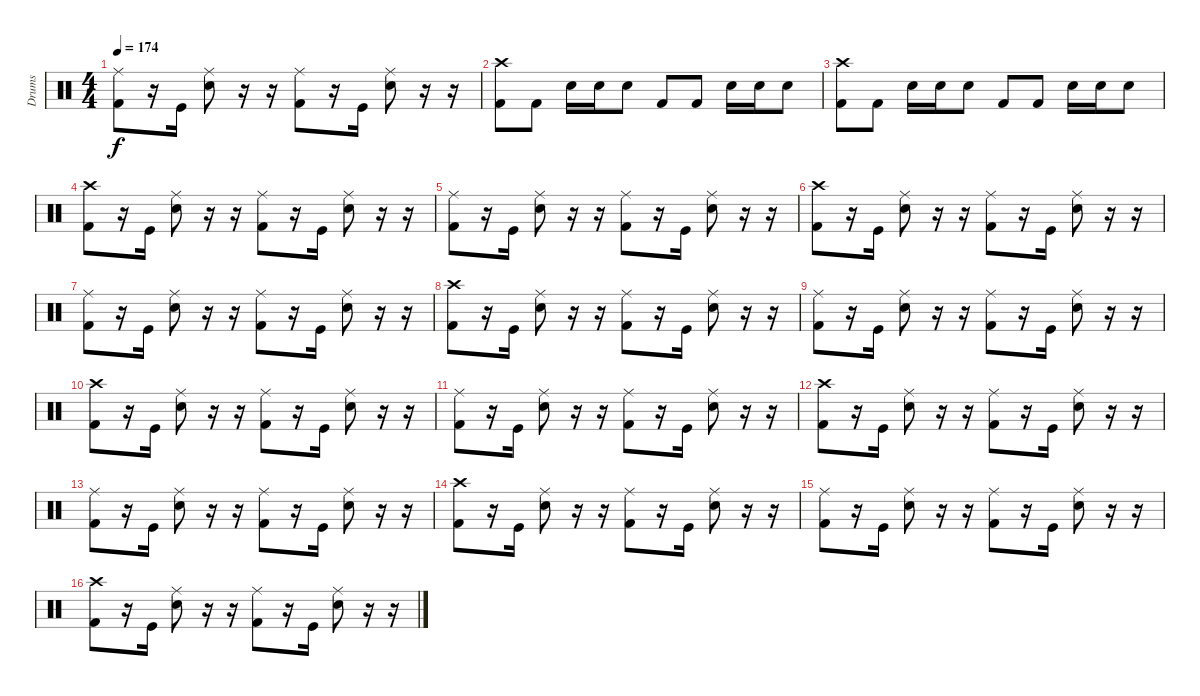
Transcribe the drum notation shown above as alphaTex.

\track ("Drums" "Drums") {instrument percussion}
\staff {score}
\articulation defaults
\ts (4 4)
\tempo 174
\clef neutral
\ks c
("Ride (middle)" "Kick (hit) 2").8{dy f} r.16 "Kick (hit)".16 ("Ride (middle)" "Snare (hit) 2").8 r.16 r.16 ("Ride (middle)" "Kick (hit) 2").8 r.16 "Kick (hit)".16 ("Ride (middle)" "Snare (hit) 2").8 r.16 r.16 |
("Crash high (hit)" "Kick (hit) 2").8 "Kick (hit) 2".8 "Snare (hit) 2".16 "Snare (hit) 2".16 "Snare (hit) 2".8 "Kick (hit) 2".8 "Kick (hit) 2".8 "Snare (hit) 2".16 "Snare (hit) 2".16 "Snare (hit) 2".8 |
("Crash high (hit)" "Kick (hit) 2").8 "Kick (hit) 2".8 "Snare (hit) 2".16 "Snare (hit) 2".16 "Snare (hit) 2".8 "Kick (hit) 2".8 "Kick (hit) 2".8 "Snare (hit) 2".16 "Snare (hit) 2".16 "Snare (hit) 2".8 |
("Crash high (hit)" "Kick (hit) 2").8 r.16 "Kick (hit)".16 ("Ride (middle)" "Snare (hit) 2").8 r.16 r.16 ("Ride (middle)" "Kick (hit) 2").8 r.16 "Kick (hit)".16 ("Ride (middle)" "Snare (hit) 2").8 r.16 r.16 |
("Ride (middle)" "Kick (hit) 2").8 r.16 "Kick (hit)".16 ("Ride (middle)" "Snare (hit) 2").8 r.16 r.16 ("Ride (middle)" "Kick (hit) 2").8 r.16 "Kick (hit)".16 ("Ride (middle)" "Snare (hit) 2").8 r.16 r.16 |
("Crash high (hit)" "Kick (hit) 2").8 r.16 "Kick (hit)".16 ("Ride (middle)" "Snare (hit) 2").8 r.16 r.16 ("Ride (middle)" "Kick (hit) 2").8 r.16 "Kick (hit)".16 ("Ride (middle)" "Snare (hit) 2").8 r.16 r.16 |
("Ride (middle)" "Kick (hit) 2").8 r.16 "Kick (hit)".16 ("Ride (middle)" "Snare (hit) 2").8 r.16 r.16 ("Ride (middle)" "Kick (hit) 2").8 r.16 "Kick (hit)".16 ("Ride (middle)" "Snare (hit) 2").8 r.16 r.16 |
("Crash high (hit)" "Kick (hit) 2").8 r.16 "Kick (hit)".16 ("Ride (middle)" "Snare (hit) 2").8 r.16 r.16 ("Ride (middle)" "Kick (hit) 2").8 r.16 "Kick (hit)".16 ("Ride (middle)" "Snare (hit) 2").8 r.16 r.16 |
("Ride (middle)" "Kick (hit) 2").8 r.16 "Kick (hit)".16 ("Ride (middle)" "Snare (hit) 2").8 r.16 r.16 ("Ride (middle)" "Kick (hit) 2").8 r.16 "Kick (hit)".16 ("Ride (middle)" "Snare (hit) 2").8 r.16 r.16 |
("Crash high (hit)" "Kick (hit) 2").8 r.16 "Kick (hit)".16 ("Ride (middle)" "Snare (hit) 2").8 r.16 r.16 ("Ride (middle)" "Kick (hit) 2").8 r.16 "Kick (hit)".16 ("Ride (middle)" "Snare (hit) 2").8 r.16 r.16 |
("Ride (middle)" "Kick (hit) 2").8 r.16 "Kick (hit)".16 ("Ride (middle)" "Snare (hit) 2").8 r.16 r.16 ("Ride (middle)" "Kick (hit) 2").8 r.16 "Kick (hit)".16 ("Ride (middle)" "Snare (hit) 2").8 r.16 r.16 |
("Crash high (hit)" "Kick (hit) 2").8 r.16 "Kick (hit)".16 ("Ride (middle)" "Snare (hit) 2").8 r.16 r.16 ("Ride (middle)" "Kick (hit) 2").8 r.16 "Kick (hit)".16 ("Ride (middle)" "Snare (hit) 2").8 r.16 r.16 |
("Ride (middle)" "Kick (hit) 2").8 r.16 "Kick (hit)".16 ("Ride (middle)" "Snare (hit) 2").8 r.16 r.16 ("Ride (middle)" "Kick (hit) 2").8 r.16 "Kick (hit)".16 ("Ride (middle)" "Snare (hit) 2").8 r.16 r.16 |
("Crash high (hit)" "Kick (hit) 2").8 r.16 "Kick (hit)".16 ("Ride (middle)" "Snare (hit) 2").8 r.16 r.16 ("Ride (middle)" "Kick (hit) 2").8 r.16 "Kick (hit)".16 ("Ride (middle)" "Snare (hit) 2").8 r.16 r.16 |
("Ride (middle)" "Kick (hit) 2").8 r.16 "Kick (hit)".16 ("Ride (middle)" "Snare (hit) 2").8 r.16 r.16 ("Ride (middle)" "Kick (hit) 2").8 r.16 "Kick (hit)".16 ("Ride (middle)" "Snare (hit) 2").8 r.16 r.16 |
("Crash high (hit)" "Kick (hit) 2").8 r.16 "Kick (hit)".16 ("Ride (middle)" "Snare (hit) 2").8 r.16 r.16 ("Ride (middle)" "Kick (hit) 2").8 r.16 "Kick (hit)".16 ("Ride (middle)" "Snare (hit) 2").8 r.16 r.16
